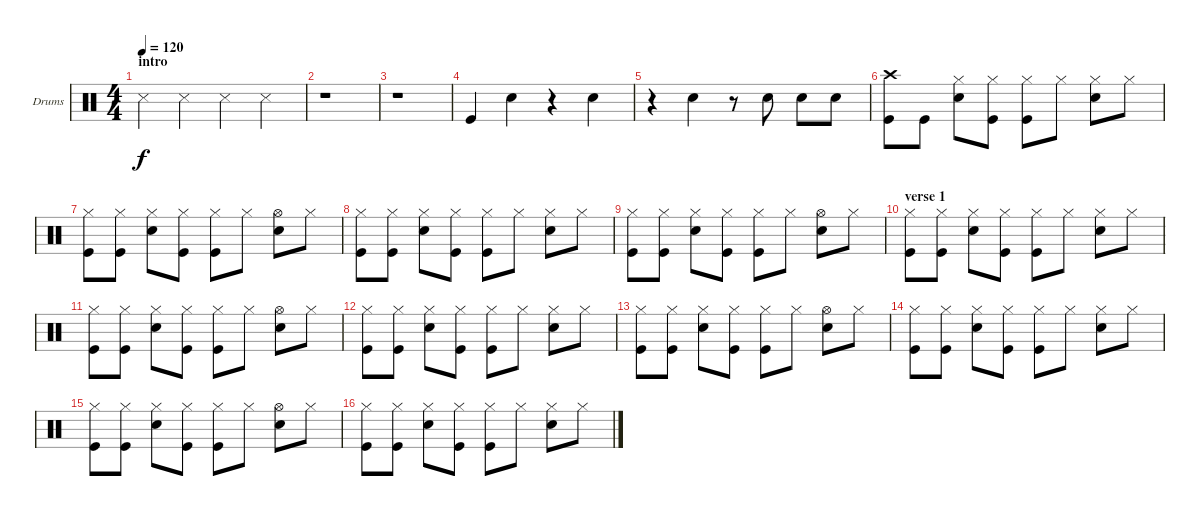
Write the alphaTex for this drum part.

\bracketExtendMode groupsimilarinstruments
\firstSystemTrackNameOrientation horizontal
\otherSystemsTrackNameOrientation horizontal
\track ("Drumkit" "Drums") {instrument percussion}
\staff {score}
\articulation defaults
\ts (4 4)
\section ("" "intro")
\tempo 120
\clef neutral
\ks c "Snare (side stick) 3".4{dy f} "Snare (side stick) 3".4 "Snare (side stick) 3".4 "Snare (side stick) 3".4
|
r.1 |
r.1 |
"Kick (hit)".4 "Snare (hit) 2".4 r.4 "Snare (hit) 2".4 |
r.4 "Snare (hit) 2".4 r.8 "Snare (hit) 2".8 "Snare (hit) 2".8 "Snare (hit) 2".8 |
("Crash high (hit)" "Kick (hit)").8 "Kick (hit)".8 ("Hi-Hat (closed)" "Snare (hit) 2").8 ("Hi-Hat (closed)" "Kick (hit)").8 ("Kick (hit)" "Hi-Hat (closed)").8 "Hi-Hat (closed)".8 ("Snare (hit) 2" "Hi-Hat (closed)").8 "Hi-Hat (closed)".8 |
("Kick (hit)" "Hi-Hat (closed)").8 ("Kick (hit)" "Hi-Hat (closed)").8 ("Snare (hit) 2" "Hi-Hat (closed)").8 ("Kick (hit)" "Hi-Hat (closed)").8 ("Kick (hit)" "Hi-Hat (closed)").8 "Hi-Hat (closed)".8 ("Snare (hit) 2" "Hi-Hat (open)").8 "Hi-Hat (closed)".8 |
("Kick (hit)" "Hi-Hat (closed)").8 ("Kick (hit)" "Hi-Hat (closed)").8 ("Snare (hit) 2" "Hi-Hat (closed)").8 ("Kick (hit)" "Hi-Hat (closed)").8 ("Kick (hit)" "Hi-Hat (closed)").8 "Hi-Hat (closed)".8 ("Snare (hit) 2" "Hi-Hat (closed)").8 "Hi-Hat (closed)".8 |
("Kick (hit)" "Hi-Hat (closed)").8 ("Kick (hit)" "Hi-Hat (closed)").8 ("Snare (hit) 2" "Hi-Hat (closed)").8 ("Kick (hit)" "Hi-Hat (closed)").8 ("Kick (hit)" "Hi-Hat (closed)").8 "Hi-Hat (closed)".8 ("Snare (hit) 2" "Hi-Hat (open)").8 "Hi-Hat (closed)".8 |
\section ("" "verse 1")
("Kick (hit)" "Hi-Hat (closed)").8 ("Kick (hit)" "Hi-Hat (closed)").8 ("Snare (hit) 2" "Hi-Hat (closed)").8 ("Kick (hit)" "Hi-Hat (closed)").8 ("Kick (hit)" "Hi-Hat (closed)").8 "Hi-Hat (closed)".8 ("Snare (hit) 2" "Hi-Hat (closed)").8 "Hi-Hat (closed)".8 |
("Kick (hit)" "Hi-Hat (closed)").8 ("Kick (hit)" "Hi-Hat (closed)").8 ("Snare (hit) 2" "Hi-Hat (closed)").8 ("Kick (hit)" "Hi-Hat (closed)").8 ("Kick (hit)" "Hi-Hat (closed)").8 "Hi-Hat (closed)".8 ("Snare (hit) 2" "Hi-Hat (open)").8 "Hi-Hat (closed)".8 |
("Hi-Hat (closed)" "Kick (hit)").8 ("Kick (hit)" "Hi-Hat (closed)").8 ("Snare (hit) 2" "Hi-Hat (closed)").8 ("Kick (hit)" "Hi-Hat (closed)").8 ("Kick (hit)" "Hi-Hat (closed)").8 "Hi-Hat (closed)".8 ("Snare (hit) 2" "Hi-Hat (closed)").8 "Hi-Hat (closed)".8 |
("Kick (hit)" "Hi-Hat (closed)").8 ("Kick (hit)" "Hi-Hat (closed)").8 ("Snare (hit) 2" "Hi-Hat (closed)").8 ("Kick (hit)" "Hi-Hat (closed)").8 ("Kick (hit)" "Hi-Hat (closed)").8 "Hi-Hat (closed)".8 ("Snare (hit) 2" "Hi-Hat (open)").8 "Hi-Hat (closed)".8 |
("Kick (hit)" "Hi-Hat (closed)").8 ("Kick (hit)" "Hi-Hat (closed)").8 ("Snare (hit) 2" "Hi-Hat (closed)").8 ("Kick (hit)" "Hi-Hat (closed)").8 ("Kick (hit)" "Hi-Hat (closed)").8 "Hi-Hat (closed)".8 ("Snare (hit) 2" "Hi-Hat (closed)").8 "Hi-Hat (closed)".8 |
("Kick (hit)" "Hi-Hat (closed)").8 ("Kick (hit)" "Hi-Hat (closed)").8 ("Snare (hit) 2" "Hi-Hat (closed)").8 ("Kick (hit)" "Hi-Hat (closed)").8 ("Kick (hit)" "Hi-Hat (closed)").8 "Hi-Hat (closed)".8 ("Snare (hit) 2" "Hi-Hat (open)").8 "Hi-Hat (closed)".8 |
("Kick (hit)" "Hi-Hat (closed)").8 ("Kick (hit)" "Hi-Hat (closed)").8 ("Snare (hit) 2" "Hi-Hat (closed)").8 ("Kick (hit)" "Hi-Hat (closed)").8 ("Kick (hit)" "Hi-Hat (closed)").8 "Hi-Hat (closed)".8 ("Snare (hit) 2" "Hi-Hat (closed)").8 "Hi-Hat (closed)".8
